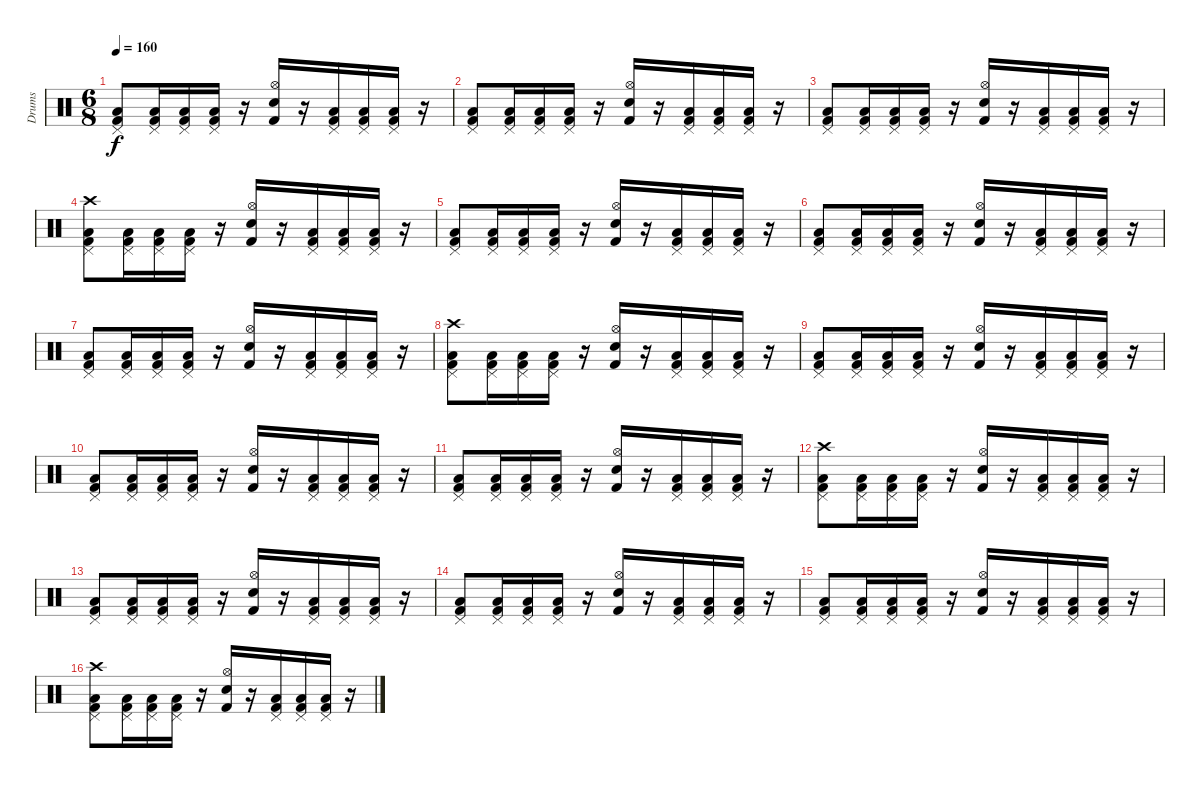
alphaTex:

\track ("Drums" "Drums") {instrument percussion}
\staff {score}
\articulation defaults
\ts (6 8)
\tempo 160
\clef neutral
\ks c
("Pedal Hi-Hat (hit)" "Low Floor Tom (hit)" "Kick (hit) 2").8{dy f} ("Pedal Hi-Hat (hit)" "Low Floor Tom (hit)" "Kick (hit) 2").16 ("Pedal Hi-Hat (hit)" "Low Floor Tom (hit)" "Kick (hit) 2").16 ("Pedal Hi-Hat (hit)" "Low Floor Tom (hit)" "Kick (hit) 2").16 r.16 ("Hi-Hat (open)" "Snare (hit) 2" "Kick (hit) 2").16 r.16 ("Pedal Hi-Hat (hit)" "Low Floor Tom (hit)" "Kick (hit) 2").16 ("Pedal Hi-Hat (hit)" "Low Floor Tom (hit)" "Kick (hit) 2").16 ("Pedal Hi-Hat (hit)" "Low Floor Tom (hit)" "Kick (hit) 2").16 r.16 |
("Pedal Hi-Hat (hit)" "Low Floor Tom (hit)" "Kick (hit) 2").8 ("Pedal Hi-Hat (hit)" "Low Floor Tom (hit)" "Kick (hit) 2").16 ("Pedal Hi-Hat (hit)" "Low Floor Tom (hit)" "Kick (hit) 2").16 ("Pedal Hi-Hat (hit)" "Low Floor Tom (hit)" "Kick (hit) 2").16 r.16 ("Hi-Hat (open)" "Snare (hit) 2" "Kick (hit) 2").16 r.16 ("Pedal Hi-Hat (hit)" "Low Floor Tom (hit)" "Kick (hit) 2").16 ("Pedal Hi-Hat (hit)" "Low Floor Tom (hit)" "Kick (hit) 2").16 ("Pedal Hi-Hat (hit)" "Low Floor Tom (hit)" "Kick (hit) 2").16 r.16 |
("Pedal Hi-Hat (hit)" "Low Floor Tom (hit)" "Kick (hit) 2").8 ("Pedal Hi-Hat (hit)" "Low Floor Tom (hit)" "Kick (hit) 2").16 ("Pedal Hi-Hat (hit)" "Low Floor Tom (hit)" "Kick (hit) 2").16 ("Pedal Hi-Hat (hit)" "Low Floor Tom (hit)" "Kick (hit) 2").16 r.16 ("Hi-Hat (open)" "Snare (hit) 2" "Kick (hit) 2").16 r.16 ("Pedal Hi-Hat (hit)" "Low Floor Tom (hit)" "Kick (hit) 2").16 ("Pedal Hi-Hat (hit)" "Low Floor Tom (hit)" "Kick (hit) 2").16 ("Pedal Hi-Hat (hit)" "Low Floor Tom (hit)" "Kick (hit) 2").16 r.16 |
("Crash high (hit)" "Pedal Hi-Hat (hit)" "Low Floor Tom (hit)" "Kick (hit) 2").8 ("Pedal Hi-Hat (hit)" "Low Floor Tom (hit)" "Kick (hit) 2").16 ("Pedal Hi-Hat (hit)" "Low Floor Tom (hit)" "Kick (hit) 2").16 ("Pedal Hi-Hat (hit)" "Low Floor Tom (hit)" "Kick (hit) 2").16 r.16 ("Hi-Hat (open)" "Snare (hit) 2" "Kick (hit) 2").16 r.16 ("Pedal Hi-Hat (hit)" "Low Floor Tom (hit)" "Kick (hit) 2").16 ("Pedal Hi-Hat (hit)" "Low Floor Tom (hit)" "Kick (hit) 2").16 ("Pedal Hi-Hat (hit)" "Low Floor Tom (hit)" "Kick (hit) 2").16 r.16 |
("Pedal Hi-Hat (hit)" "Low Floor Tom (hit)" "Kick (hit) 2").8 ("Pedal Hi-Hat (hit)" "Low Floor Tom (hit)" "Kick (hit) 2").16 ("Pedal Hi-Hat (hit)" "Low Floor Tom (hit)" "Kick (hit) 2").16 ("Pedal Hi-Hat (hit)" "Low Floor Tom (hit)" "Kick (hit) 2").16 r.16 ("Hi-Hat (open)" "Snare (hit) 2" "Kick (hit) 2").16 r.16 ("Pedal Hi-Hat (hit)" "Low Floor Tom (hit)" "Kick (hit) 2").16 ("Pedal Hi-Hat (hit)" "Low Floor Tom (hit)" "Kick (hit) 2").16 ("Pedal Hi-Hat (hit)" "Low Floor Tom (hit)" "Kick (hit) 2").16 r.16 |
("Pedal Hi-Hat (hit)" "Low Floor Tom (hit)" "Kick (hit) 2").8 ("Pedal Hi-Hat (hit)" "Low Floor Tom (hit)" "Kick (hit) 2").16 ("Pedal Hi-Hat (hit)" "Low Floor Tom (hit)" "Kick (hit) 2").16 ("Pedal Hi-Hat (hit)" "Low Floor Tom (hit)" "Kick (hit) 2").16 r.16 ("Hi-Hat (open)" "Snare (hit) 2" "Kick (hit) 2").16 r.16 ("Pedal Hi-Hat (hit)" "Low Floor Tom (hit)" "Kick (hit) 2").16 ("Pedal Hi-Hat (hit)" "Low Floor Tom (hit)" "Kick (hit) 2").16 ("Pedal Hi-Hat (hit)" "Low Floor Tom (hit)" "Kick (hit) 2").16 r.16 |
("Pedal Hi-Hat (hit)" "Low Floor Tom (hit)" "Kick (hit) 2").8 ("Pedal Hi-Hat (hit)" "Low Floor Tom (hit)" "Kick (hit) 2").16 ("Pedal Hi-Hat (hit)" "Low Floor Tom (hit)" "Kick (hit) 2").16 ("Pedal Hi-Hat (hit)" "Low Floor Tom (hit)" "Kick (hit) 2").16 r.16 ("Hi-Hat (open)" "Snare (hit) 2" "Kick (hit) 2").16 r.16 ("Pedal Hi-Hat (hit)" "Low Floor Tom (hit)" "Kick (hit) 2").16 ("Pedal Hi-Hat (hit)" "Low Floor Tom (hit)" "Kick (hit) 2").16 ("Pedal Hi-Hat (hit)" "Low Floor Tom (hit)" "Kick (hit) 2").16 r.16 |
("Crash high (hit)" "Pedal Hi-Hat (hit)" "Low Floor Tom (hit)" "Kick (hit) 2").8 ("Pedal Hi-Hat (hit)" "Low Floor Tom (hit)" "Kick (hit) 2").16 ("Pedal Hi-Hat (hit)" "Low Floor Tom (hit)" "Kick (hit) 2").16 ("Pedal Hi-Hat (hit)" "Low Floor Tom (hit)" "Kick (hit) 2").16 r.16 ("Hi-Hat (open)" "Snare (hit) 2" "Kick (hit) 2").16 r.16 ("Pedal Hi-Hat (hit)" "Low Floor Tom (hit)" "Kick (hit) 2").16 ("Pedal Hi-Hat (hit)" "Low Floor Tom (hit)" "Kick (hit) 2").16 ("Pedal Hi-Hat (hit)" "Low Floor Tom (hit)" "Kick (hit) 2").16 r.16 |
("Pedal Hi-Hat (hit)" "Low Floor Tom (hit)" "Kick (hit) 2").8 ("Pedal Hi-Hat (hit)" "Low Floor Tom (hit)" "Kick (hit) 2").16 ("Pedal Hi-Hat (hit)" "Low Floor Tom (hit)" "Kick (hit) 2").16 ("Pedal Hi-Hat (hit)" "Low Floor Tom (hit)" "Kick (hit) 2").16 r.16 ("Hi-Hat (open)" "Snare (hit) 2" "Kick (hit) 2").16 r.16 ("Pedal Hi-Hat (hit)" "Low Floor Tom (hit)" "Kick (hit) 2").16 ("Pedal Hi-Hat (hit)" "Low Floor Tom (hit)" "Kick (hit) 2").16 ("Pedal Hi-Hat (hit)" "Low Floor Tom (hit)" "Kick (hit) 2").16 r.16 |
("Pedal Hi-Hat (hit)" "Low Floor Tom (hit)" "Kick (hit) 2").8 ("Pedal Hi-Hat (hit)" "Low Floor Tom (hit)" "Kick (hit) 2").16 ("Pedal Hi-Hat (hit)" "Low Floor Tom (hit)" "Kick (hit) 2").16 ("Pedal Hi-Hat (hit)" "Low Floor Tom (hit)" "Kick (hit) 2").16 r.16 ("Hi-Hat (open)" "Snare (hit) 2" "Kick (hit) 2").16 r.16 ("Pedal Hi-Hat (hit)" "Low Floor Tom (hit)" "Kick (hit) 2").16 ("Pedal Hi-Hat (hit)" "Low Floor Tom (hit)" "Kick (hit) 2").16 ("Pedal Hi-Hat (hit)" "Low Floor Tom (hit)" "Kick (hit) 2").16 r.16 |
("Pedal Hi-Hat (hit)" "Low Floor Tom (hit)" "Kick (hit) 2").8 ("Pedal Hi-Hat (hit)" "Low Floor Tom (hit)" "Kick (hit) 2").16 ("Pedal Hi-Hat (hit)" "Low Floor Tom (hit)" "Kick (hit) 2").16 ("Pedal Hi-Hat (hit)" "Low Floor Tom (hit)" "Kick (hit) 2").16 r.16 ("Hi-Hat (open)" "Snare (hit) 2" "Kick (hit) 2").16 r.16 ("Pedal Hi-Hat (hit)" "Low Floor Tom (hit)" "Kick (hit) 2").16 ("Pedal Hi-Hat (hit)" "Low Floor Tom (hit)" "Kick (hit) 2").16 ("Pedal Hi-Hat (hit)" "Low Floor Tom (hit)" "Kick (hit) 2").16 r.16 |
("Crash high (hit)" "Pedal Hi-Hat (hit)" "Low Floor Tom (hit)" "Kick (hit) 2").8 ("Pedal Hi-Hat (hit)" "Low Floor Tom (hit)" "Kick (hit) 2").16 ("Pedal Hi-Hat (hit)" "Low Floor Tom (hit)" "Kick (hit) 2").16 ("Pedal Hi-Hat (hit)" "Low Floor Tom (hit)" "Kick (hit) 2").16 r.16 ("Hi-Hat (open)" "Snare (hit) 2" "Kick (hit) 2").16 r.16 ("Pedal Hi-Hat (hit)" "Low Floor Tom (hit)" "Kick (hit) 2").16 ("Pedal Hi-Hat (hit)" "Low Floor Tom (hit)" "Kick (hit) 2").16 ("Pedal Hi-Hat (hit)" "Low Floor Tom (hit)" "Kick (hit) 2").16 r.16 |
("Pedal Hi-Hat (hit)" "Low Floor Tom (hit)" "Kick (hit) 2").8 ("Pedal Hi-Hat (hit)" "Low Floor Tom (hit)" "Kick (hit) 2").16 ("Pedal Hi-Hat (hit)" "Low Floor Tom (hit)" "Kick (hit) 2").16 ("Pedal Hi-Hat (hit)" "Low Floor Tom (hit)" "Kick (hit) 2").16 r.16 ("Hi-Hat (open)" "Snare (hit) 2" "Kick (hit) 2").16 r.16 ("Pedal Hi-Hat (hit)" "Low Floor Tom (hit)" "Kick (hit) 2").16 ("Pedal Hi-Hat (hit)" "Low Floor Tom (hit)" "Kick (hit) 2").16 ("Pedal Hi-Hat (hit)" "Low Floor Tom (hit)" "Kick (hit) 2").16 r.16 |
("Pedal Hi-Hat (hit)" "Low Floor Tom (hit)" "Kick (hit) 2").8 ("Pedal Hi-Hat (hit)" "Low Floor Tom (hit)" "Kick (hit) 2").16 ("Pedal Hi-Hat (hit)" "Low Floor Tom (hit)" "Kick (hit) 2").16 ("Pedal Hi-Hat (hit)" "Low Floor Tom (hit)" "Kick (hit) 2").16 r.16 ("Hi-Hat (open)" "Snare (hit) 2" "Kick (hit) 2").16 r.16 ("Pedal Hi-Hat (hit)" "Low Floor Tom (hit)" "Kick (hit) 2").16 ("Pedal Hi-Hat (hit)" "Low Floor Tom (hit)" "Kick (hit) 2").16 ("Pedal Hi-Hat (hit)" "Low Floor Tom (hit)" "Kick (hit) 2").16 r.16 |
("Pedal Hi-Hat (hit)" "Low Floor Tom (hit)" "Kick (hit) 2").8 ("Pedal Hi-Hat (hit)" "Low Floor Tom (hit)" "Kick (hit) 2").16 ("Pedal Hi-Hat (hit)" "Low Floor Tom (hit)" "Kick (hit) 2").16 ("Pedal Hi-Hat (hit)" "Low Floor Tom (hit)" "Kick (hit) 2").16 r.16 ("Hi-Hat (open)" "Snare (hit) 2" "Kick (hit) 2").16 r.16 ("Pedal Hi-Hat (hit)" "Low Floor Tom (hit)" "Kick (hit) 2").16 ("Pedal Hi-Hat (hit)" "Low Floor Tom (hit)" "Kick (hit) 2").16 ("Pedal Hi-Hat (hit)" "Low Floor Tom (hit)" "Kick (hit) 2").16 r.16 |
("Crash high (hit)" "Pedal Hi-Hat (hit)" "Low Floor Tom (hit)" "Kick (hit) 2").8 ("Pedal Hi-Hat (hit)" "Low Floor Tom (hit)" "Kick (hit) 2").16 ("Pedal Hi-Hat (hit)" "Low Floor Tom (hit)" "Kick (hit) 2").16 ("Pedal Hi-Hat (hit)" "Low Floor Tom (hit)" "Kick (hit) 2").16 r.16 ("Hi-Hat (open)" "Snare (hit) 2" "Kick (hit) 2").16 r.16 ("Pedal Hi-Hat (hit)" "Low Floor Tom (hit)" "Kick (hit) 2").16 ("Pedal Hi-Hat (hit)" "Low Floor Tom (hit)" "Kick (hit) 2").16 ("Pedal Hi-Hat (hit)" "Low Floor Tom (hit)" "Kick (hit) 2").16 r.16
